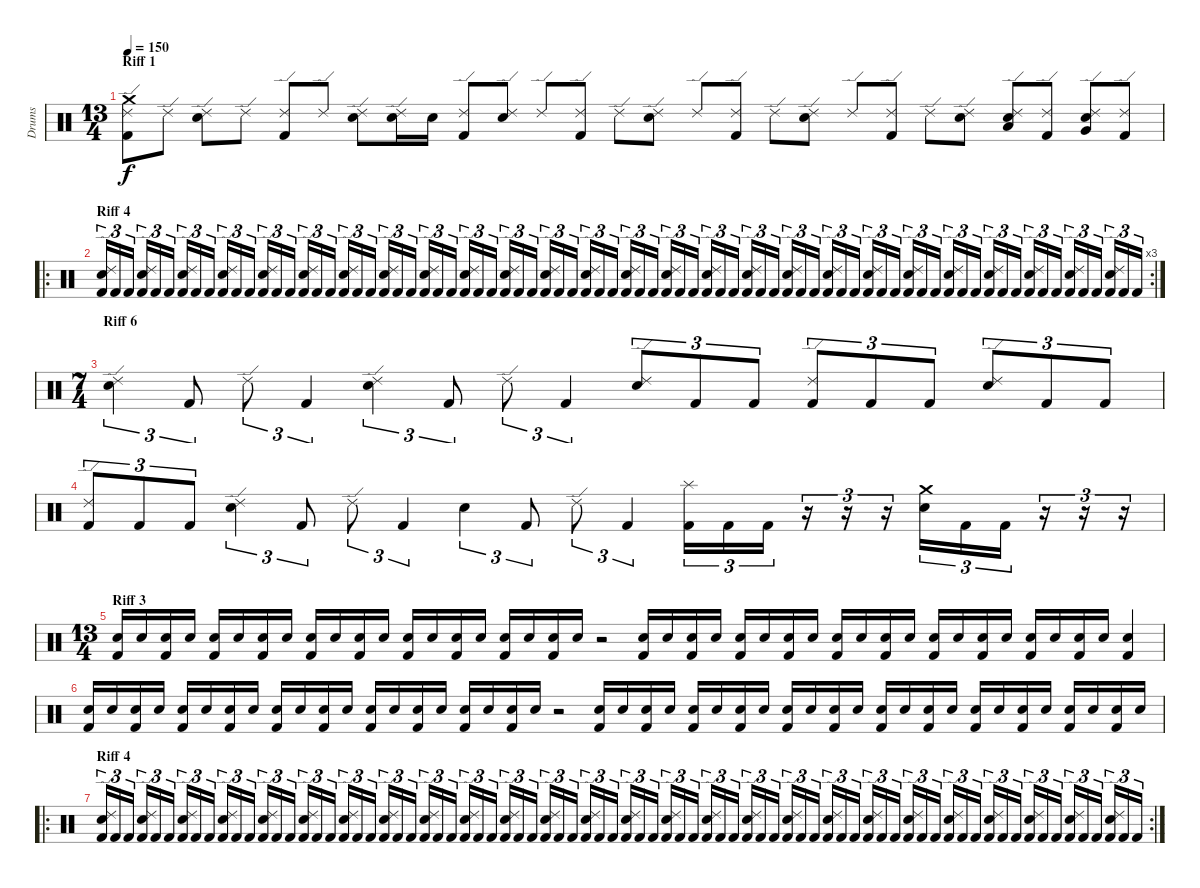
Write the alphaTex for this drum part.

\track ("Drums" "Drums") {instrument percussion}
\staff {score}
\articulation defaults
\ts (13 4)
\section ("" "Riff 1")
\tempo 150
\clef neutral
\ks c
("Kick (hit) 2" "Ride (edge) 2" "Crash medium (hit)").8{dy f} "Ride (edge) 2".8 ("Snare (hit) 2" "Ride (edge) 2").8 "Ride (edge) 2".8 ("Kick (hit) 2" "Ride (edge) 2").8 "Ride (edge) 2".8 ("Snare (hit) 2" "Ride (edge) 2").8 ("Snare (hit) 2" "Ride (edge) 2").16 "Snare (hit) 2".16 ("Kick (hit) 2" "Ride (edge) 2").8 ("Snare (hit) 2" "Ride (edge) 2").8 "Ride (edge) 2".8 ("Kick (hit) 2" "Ride (edge) 2").8 "Ride (edge) 2".8 ("Snare (hit) 2" "Ride (edge) 2").8 "Ride (edge) 2".8 ("Kick (hit) 2" "Ride (edge) 2").8 "Ride (edge) 2".8 ("Snare (hit) 2" "Ride (edge) 2").8 "Ride (edge) 2".8 ("Kick (hit) 2" "Ride (edge) 2").8 "Ride (edge) 2".8 ("Snare (hit) 2" "Ride (edge) 2").8 ("Snare (hit) 2" "Ride (edge) 2" "Low Tom (hit)").8 ("Kick (hit) 2" "Ride (edge) 2").8 ("Snare (hit) 2" "Ride (edge) 2" "Very Low Tom (hit)").8 ("Kick (hit) 2" "Ride (edge) 2").8 |
\ro
\rc 3
\section ("" "Riff 4")
("Kick (hit) 2" "Snare (hit) 2" "Ride (edge) 2").16{tu (3 2)} "Kick (hit) 2".16{tu (3 2)} "Kick (hit) 2".16{tu (3 2)} ("Kick (hit) 2" "Snare (hit) 2" "Ride (edge) 2").16{tu (3 2)} "Kick (hit) 2".16{tu (3 2)} "Kick (hit) 2".16{tu (3 2)} ("Kick (hit) 2" "Snare (hit) 2" "Ride (edge) 2").16{tu (3 2)} "Kick (hit) 2".16{tu (3 2)} "Kick (hit) 2".16{tu (3 2)} ("Kick (hit) 2" "Snare (hit) 2" "Ride (edge) 2").16{tu (3 2)} "Kick (hit) 2".16{tu (3 2)} "Kick (hit) 2".16{tu (3 2)} ("Kick (hit) 2" "Snare (hit) 2" "Ride (edge) 2").16{tu (3 2)} "Kick (hit) 2".16{tu (3 2)} "Kick (hit) 2".16{tu (3 2)} ("Kick (hit) 2" "Snare (hit) 2" "Ride (edge) 2").16{tu (3 2)} "Kick (hit) 2".16{tu (3 2)} "Kick (hit) 2".16{tu (3 2)} ("Kick (hit) 2" "Snare (hit) 2" "Ride (edge) 2").16{tu (3 2)} "Kick (hit) 2".16{tu (3 2)} "Kick (hit) 2".16{tu (3 2)} ("Kick (hit) 2" "Snare (hit) 2" "Ride (edge) 2").16{tu (3 2)} "Kick (hit) 2".16{tu (3 2)} "Kick (hit) 2".16{tu (3 2)} ("Kick (hit) 2" "Snare (hit) 2" "Ride (edge) 2").16{tu (3 2)} "Kick (hit) 2".16{tu (3 2)} "Kick (hit) 2".16{tu (3 2)} ("Kick (hit) 2" "Snare (hit) 2" "Ride (edge) 2").16{tu (3 2)} "Kick (hit) 2".16{tu (3 2)} "Kick (hit) 2".16{tu (3 2)} ("Kick (hit) 2" "Snare (hit) 2" "Ride (edge) 2").16{tu (3 2)} "Kick (hit) 2".16{tu (3 2)} "Kick (hit) 2".16{tu (3 2)} ("Kick (hit) 2" "Snare (hit) 2" "Ride (edge) 2").16{tu (3 2)} "Kick (hit) 2".16{tu (3 2)} "Kick (hit) 2".16{tu (3 2)} ("Kick (hit) 2" "Snare (hit) 2" "Ride (edge) 2").16{tu (3 2)} "Kick (hit) 2".16{tu (3 2)} "Kick (hit) 2".16{tu (3 2)} ("Kick (hit) 2" "Snare (hit) 2" "Ride (edge) 2").16{tu (3 2)} "Kick (hit) 2".16{tu (3 2)} "Kick (hit) 2".16{tu (3 2)} ("Kick (hit) 2" "Snare (hit) 2" "Ride (edge) 2").16{tu (3 2)} "Kick (hit) 2".16{tu (3 2)} "Kick (hit) 2".16{tu (3 2)} ("Kick (hit) 2" "Snare (hit) 2" "Ride (edge) 2").16{tu (3 2)} "Kick (hit) 2".16{tu (3 2)} "Kick (hit) 2".16{tu (3 2)} ("Kick (hit) 2" "Snare (hit) 2" "Ride (edge) 2").16{tu (3 2)} "Kick (hit) 2".16{tu (3 2)} "Kick (hit) 2".16{tu (3 2)} ("Kick (hit) 2" "Snare (hit) 2" "Ride (edge) 2").16{tu (3 2)} "Kick (hit) 2".16{tu (3 2)} "Kick (hit) 2".16{tu (3 2)} ("Kick (hit) 2" "Ride (edge) 2" "Snare (hit) 2").16{tu (3 2)} "Kick (hit) 2".16{tu (3 2)} "Kick (hit) 2".16{tu (3 2)} ("Kick (hit) 2" "Snare (hit) 2" "Ride (edge) 2").16{tu (3 2)} "Kick (hit) 2".16{tu (3 2)} "Kick (hit) 2".16{tu (3 2)} ("Kick (hit) 2" "Snare (hit) 2" "Ride (edge) 2").16{tu (3 2)} "Kick (hit) 2".16{tu (3 2)} "Kick (hit) 2".16{tu (3 2)} ("Kick (hit) 2" "Ride (edge) 2" "Snare (hit) 2").16{tu (3 2)} "Kick (hit) 2".16{tu (3 2)} "Kick (hit) 2".16{tu (3 2)} ("Kick (hit) 2" "Snare (hit) 2" "Ride (edge) 2").16{tu (3 2)} "Kick (hit) 2".16{tu (3 2)} "Kick (hit) 2".16{tu (3 2)} ("Kick (hit) 2" "Snare (hit) 2" "Ride (edge) 2").16{tu (3 2)} "Kick (hit) 2".16{tu (3 2)} "Kick (hit) 2".16{tu (3 2)} ("Kick (hit) 2" "Snare (hit) 2" "Ride (edge) 2").16{tu (3 2)} "Kick (hit) 2".16{tu (3 2)} "Kick (hit) 2".16{tu (3 2)} ("Kick (hit) 2" "Snare (hit) 2" "Ride (edge) 2").16{tu (3 2)} "Kick (hit) 2".16{tu (3 2)} "Kick (hit) 2".16{tu (3 2)} |
\ts (7 4)
\section ("" "Riff 6")
("Ride (edge) 2" "Snare (hit) 2").4{tu (3 2)} "Kick (hit) 2".8{tu (3 2)} "Ride (edge) 2".8{tu (3 2)} "Kick (hit) 2".4{tu (3 2)} ("Ride (edge) 2" "Snare (hit) 2").4{tu (3 2)} "Kick (hit) 2".8{tu (3 2)} "Ride (edge) 2".8{tu (3 2)} "Kick (hit) 2".4{tu (3 2)} ("Ride (edge) 2" "Snare (hit) 2").8{tu (3 2)} "Kick (hit) 2".8{tu (3 2)} "Kick (hit) 2".8{tu (3 2)} ("Ride (edge) 2" "Kick (hit) 2").8{tu (3 2)} "Kick (hit) 2".8{tu (3 2)} "Kick (hit) 2".8{tu (3 2)} ("Ride (edge) 2" "Snare (hit) 2").8{tu (3 2)} "Kick (hit) 2".8{tu (3 2)} "Kick (hit) 2".8{tu (3 2)} |
("Ride (edge) 2" "Kick (hit) 2").8{tu (3 2)} "Kick (hit) 2".8{tu (3 2)} "Kick (hit) 2".8{tu (3 2)} ("Ride (edge) 2" "Snare (hit) 2").4{tu (3 2)} "Kick (hit) 2".8{tu (3 2)} "Ride (edge) 2".8{tu (3 2)} "Kick (hit) 2".4{tu (3 2)} "Snare (hit) 2".4{tu (3 2)} "Kick (hit) 2".8{tu (3 2)} "Ride (edge) 2".8{tu (3 2)} "Kick (hit) 2".4{tu (3 2)} ("Splash (hit)" "Kick (hit) 2").16{tu (3 2)} "Kick (hit) 2".16{tu (3 2)} "Kick (hit) 2".16{tu (3 2)} r.16{tu (3 2)} r.16{tu (3 2)} r.16{tu (3 2)} ("Crash medium (hit)" "Snare (hit) 2").16{tu (3 2)} "Kick (hit) 2".16{tu (3 2)} "Kick (hit) 2".16{tu (3 2)} r.16{tu (3 2)} r.16{tu (3 2)} r.16{tu (3 2)} |
\ts (13 4)
\section ("" "Riff 3")
("Kick (hit) 2" "Snare (hit) 2").16 "Snare (hit) 2".16 ("Kick (hit) 2" "Snare (hit) 2").16 "Snare (hit) 2".16 ("Kick (hit) 2" "Snare (hit) 2").16 "Snare (hit) 2".16 ("Kick (hit) 2" "Snare (hit) 2").16 "Snare (hit) 2".16 ("Kick (hit) 2" "Snare (hit) 2").16 "Snare (hit) 2".16 ("Kick (hit) 2" "Snare (hit) 2").16 "Snare (hit) 2".16 ("Kick (hit) 2" "Snare (hit) 2").16 "Snare (hit) 2".16 ("Kick (hit) 2" "Snare (hit) 2").16 "Snare (hit) 2".16 ("Kick (hit) 2" "Snare (hit) 2").16 "Snare (hit) 2".16 ("Kick (hit) 2" "Snare (hit) 2").16 "Snare (hit) 2".16 r.2 ("Kick (hit) 2" "Snare (hit) 2").16 "Snare (hit) 2".16 ("Kick (hit) 2" "Snare (hit) 2").16 "Snare (hit) 2".16 ("Kick (hit) 2" "Snare (hit) 2").16 "Snare (hit) 2".16 ("Kick (hit) 2" "Snare (hit) 2").16 "Snare (hit) 2".16 ("Kick (hit) 2" "Snare (hit) 2").16 "Snare (hit) 2".16 ("Kick (hit) 2" "Snare (hit) 2").16 "Snare (hit) 2".16 ("Kick (hit) 2" "Snare (hit) 2").16 "Snare (hit) 2".16 ("Kick (hit) 2" "Snare (hit) 2").16 "Snare (hit) 2".16 ("Kick (hit) 2" "Snare (hit) 2").16 "Snare (hit) 2".16 ("Kick (hit) 2" "Snare (hit) 2").16 "Snare (hit) 2".16 ("Kick (hit) 2" "Snare (hit) 2").4 |
("Kick (hit) 2" "Snare (hit) 2").16 "Snare (hit) 2".16 ("Kick (hit) 2" "Snare (hit) 2").16 "Snare (hit) 2".16 ("Kick (hit) 2" "Snare (hit) 2").16 "Snare (hit) 2".16 ("Kick (hit) 2" "Snare (hit) 2").16 "Snare (hit) 2".16 ("Kick (hit) 2" "Snare (hit) 2").16 "Snare (hit) 2".16 ("Kick (hit) 2" "Snare (hit) 2").16 "Snare (hit) 2".16 ("Kick (hit) 2" "Snare (hit) 2").16 "Snare (hit) 2".16 ("Kick (hit) 2" "Snare (hit) 2").16 "Snare (hit) 2".16 ("Kick (hit) 2" "Snare (hit) 2").16 "Snare (hit) 2".16 ("Kick (hit) 2" "Snare (hit) 2").16 "Snare (hit) 2".16 r.2 ("Kick (hit) 2" "Snare (hit) 2").16 "Snare (hit) 2".16 ("Kick (hit) 2" "Snare (hit) 2").16 "Snare (hit) 2".16 ("Kick (hit) 2" "Snare (hit) 2").16 "Snare (hit) 2".16 ("Kick (hit) 2" "Snare (hit) 2").16 "Snare (hit) 2".16 ("Kick (hit) 2" "Snare (hit) 2").16 "Snare (hit) 2".16 ("Kick (hit) 2" "Snare (hit) 2").16 "Snare (hit) 2".16 ("Kick (hit) 2" "Snare (hit) 2").16 "Snare (hit) 2".16 ("Kick (hit) 2" "Snare (hit) 2").16 "Snare (hit) 2".16 ("Kick (hit) 2" "Snare (hit) 2").16 "Snare (hit) 2".16 ("Kick (hit) 2" "Snare (hit) 2").16 "Snare (hit) 2".16 ("Kick (hit) 2" "Snare (hit) 2").16 "Snare (hit) 2".16 ("Kick (hit) 2" "Snare (hit) 2").16 "Snare (hit) 2".16 |
\ro
\rc 2
\section ("" "Riff 4")
("Kick (hit) 2" "Snare (hit) 2" "Ride (edge) 2").16{tu (3 2)} "Kick (hit) 2".16{tu (3 2)} "Kick (hit) 2".16{tu (3 2)} ("Kick (hit) 2" "Snare (hit) 2" "Ride (edge) 2").16{tu (3 2)} "Kick (hit) 2".16{tu (3 2)} "Kick (hit) 2".16{tu (3 2)} ("Kick (hit) 2" "Snare (hit) 2" "Ride (edge) 2").16{tu (3 2)} "Kick (hit) 2".16{tu (3 2)} "Kick (hit) 2".16{tu (3 2)} ("Kick (hit) 2" "Snare (hit) 2" "Ride (edge) 2").16{tu (3 2)} "Kick (hit) 2".16{tu (3 2)} "Kick (hit) 2".16{tu (3 2)} ("Kick (hit) 2" "Snare (hit) 2" "Ride (edge) 2").16{tu (3 2)} "Kick (hit) 2".16{tu (3 2)} "Kick (hit) 2".16{tu (3 2)} ("Kick (hit) 2" "Snare (hit) 2" "Ride (edge) 2").16{tu (3 2)} "Kick (hit) 2".16{tu (3 2)} "Kick (hit) 2".16{tu (3 2)} ("Kick (hit) 2" "Snare (hit) 2" "Ride (edge) 2").16{tu (3 2)} "Kick (hit) 2".16{tu (3 2)} "Kick (hit) 2".16{tu (3 2)} ("Kick (hit) 2" "Snare (hit) 2" "Ride (edge) 2").16{tu (3 2)} "Kick (hit) 2".16{tu (3 2)} "Kick (hit) 2".16{tu (3 2)} ("Kick (hit) 2" "Snare (hit) 2" "Ride (edge) 2").16{tu (3 2)} "Kick (hit) 2".16{tu (3 2)} "Kick (hit) 2".16{tu (3 2)} ("Kick (hit) 2" "Snare (hit) 2" "Ride (edge) 2").16{tu (3 2)} "Kick (hit) 2".16{tu (3 2)} "Kick (hit) 2".16{tu (3 2)} ("Kick (hit) 2" "Snare (hit) 2" "Ride (edge) 2").16{tu (3 2)} "Kick (hit) 2".16{tu (3 2)} "Kick (hit) 2".16{tu (3 2)} ("Kick (hit) 2" "Snare (hit) 2" "Ride (edge) 2").16{tu (3 2)} "Kick (hit) 2".16{tu (3 2)} "Kick (hit) 2".16{tu (3 2)} ("Kick (hit) 2" "Snare (hit) 2" "Ride (edge) 2").16{tu (3 2)} "Kick (hit) 2".16{tu (3 2)} "Kick (hit) 2".16{tu (3 2)} ("Kick (hit) 2" "Snare (hit) 2" "Ride (edge) 2").16{tu (3 2)} "Kick (hit) 2".16{tu (3 2)} "Kick (hit) 2".16{tu (3 2)} ("Kick (hit) 2" "Snare (hit) 2" "Ride (edge) 2").16{tu (3 2)} "Kick (hit) 2".16{tu (3 2)} "Kick (hit) 2".16{tu (3 2)} ("Kick (hit) 2" "Snare (hit) 2" "Ride (edge) 2").16{tu (3 2)} "Kick (hit) 2".16{tu (3 2)} "Kick (hit) 2".16{tu (3 2)} ("Kick (hit) 2" "Snare (hit) 2" "Ride (edge) 2").16{tu (3 2)} "Kick (hit) 2".16{tu (3 2)} "Kick (hit) 2".16{tu (3 2)} ("Kick (hit) 2" "Snare (hit) 2" "Ride (edge) 2").16{tu (3 2)} "Kick (hit) 2".16{tu (3 2)} "Kick (hit) 2".16{tu (3 2)} ("Kick (hit) 2" "Ride (edge) 2" "Snare (hit) 2").16{tu (3 2)} "Kick (hit) 2".16{tu (3 2)} "Kick (hit) 2".16{tu (3 2)} ("Kick (hit) 2" "Snare (hit) 2" "Ride (edge) 2").16{tu (3 2)} "Kick (hit) 2".16{tu (3 2)} "Kick (hit) 2".16{tu (3 2)} ("Kick (hit) 2" "Snare (hit) 2" "Ride (edge) 2").16{tu (3 2)} "Kick (hit) 2".16{tu (3 2)} "Kick (hit) 2".16{tu (3 2)} ("Kick (hit) 2" "Ride (edge) 2" "Snare (hit) 2").16{tu (3 2)} "Kick (hit) 2".16{tu (3 2)} "Kick (hit) 2".16{tu (3 2)} ("Kick (hit) 2" "Snare (hit) 2" "Ride (edge) 2").16{tu (3 2)} "Kick (hit) 2".16{tu (3 2)} "Kick (hit) 2".16{tu (3 2)} ("Kick (hit) 2" "Snare (hit) 2" "Ride (edge) 2").16{tu (3 2)} "Kick (hit) 2".16{tu (3 2)} "Kick (hit) 2".16{tu (3 2)} ("Kick (hit) 2" "Snare (hit) 2" "Ride (edge) 2").16{tu (3 2)} "Kick (hit) 2".16{tu (3 2)} "Kick (hit) 2".16{tu (3 2)} ("Kick (hit) 2" "Snare (hit) 2" "Ride (edge) 2").16{tu (3 2)} "Kick (hit) 2".16{tu (3 2)} "Kick (hit) 2".16{tu (3 2)}
